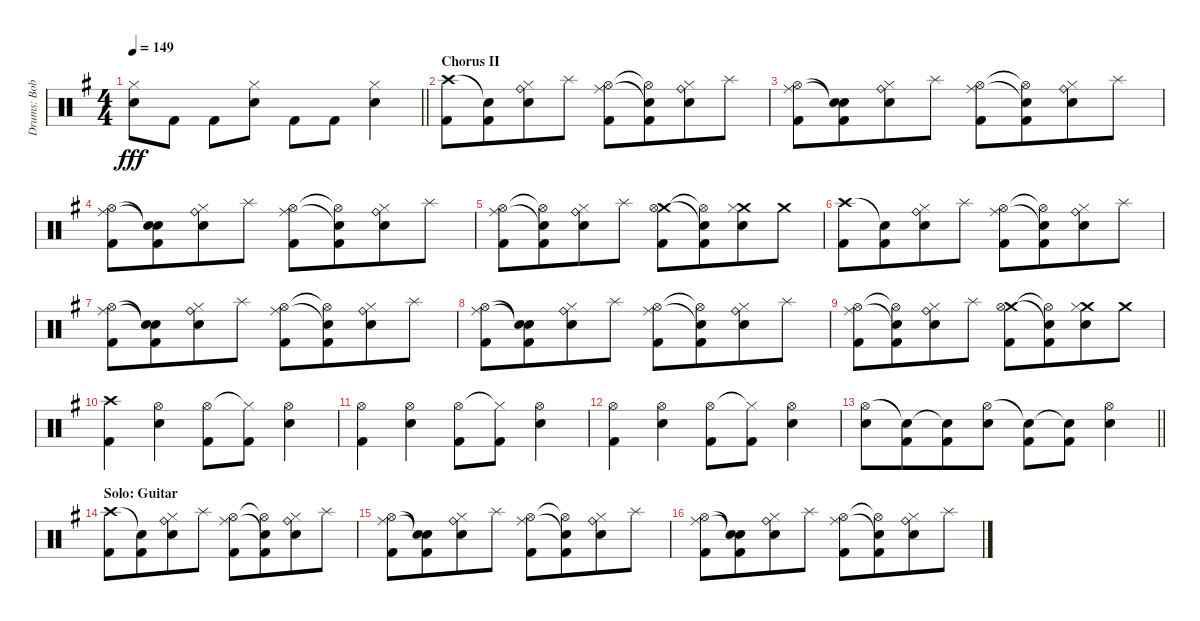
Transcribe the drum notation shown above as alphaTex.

\track ("Drums: Bobby" "Drums: Bob") {instrument percussion}
\staff {score}
\articulation defaults
\ts (4 4)
\tempo 149
\clef neutral
\barLineRight lightlight
\ks g
("Hi-Hat (closed)" "Snare (hit) 2").8{dy fff} "Kick (hit) 2".8 "Kick (hit) 2".8{beam merge} ("Hi-Hat (closed)" "Snare (hit) 2").8 "Kick (hit) 2".8 "Kick (hit) 2".8{beam merge} ("Hi-Hat (closed)" "Snare (hit) 2").4 |
\section ("" "Chorus II")
("Crash high (hit)" "Kick (hit) 2").8 ("Snare (hit)"{t} "Kick (hit) 2").8{beam merge} ("Ride (bell)" "Hi-Hat (closed)" "Snare (hit) 2").8 "Splash (hit)".8 ("Ride (middle)" "Hi-Hat (open)" "Kick (hit) 2").8 ("Snare (hit)"{t} "Hi-Hat (open)"{t} "Kick (hit) 2").8{beam merge} ("Ride (bell)" "Hi-Hat (closed)" "Snare (hit) 2").8 "Splash (hit)".8 |
("Ride (middle)" "Hi-Hat (open)" "Kick (hit) 2").8 ("Snare (hit)"{t} "Snare (hit)"{t} "Kick (hit) 2").8{beam merge} ("Ride (bell)" "Hi-Hat (closed)" "Snare (hit) 2").8 "Splash (hit)".8 ("Ride (middle)" "Hi-Hat (open)" "Kick (hit) 2").8 ("Snare (hit)"{t} "Hi-Hat (open)"{t} "Kick (hit) 2").8{beam merge} ("Ride (bell)" "Hi-Hat (closed)" "Snare (hit) 2").8 "Splash (hit)".8 |
("Ride (middle)" "Hi-Hat (open)" "Kick (hit) 2").8 ("Snare (hit)"{t} "Snare (hit)"{t} "Kick (hit) 2").8{beam merge} ("Ride (bell)" "Hi-Hat (closed)" "Snare (hit) 2").8 "Splash (hit)".8 ("Ride (middle)" "Hi-Hat (open)" "Kick (hit) 2").8 ("Snare (hit)"{t} "Hi-Hat (open)"{t} "Kick (hit) 2").8{beam merge} ("Ride (bell)" "Hi-Hat (closed)" "Snare (hit) 2").8 "Splash (hit)".8 |
("Ride (middle)" "Hi-Hat (open)" "Kick (hit) 2").8 ("Snare (hit)"{t} "Hi-Hat (open)"{t} "Kick (hit) 2").8{beam merge} ("Ride (bell)" "Hi-Hat (closed)" "Snare (hit) 2").8 "Splash (hit)".8 ("Crash medium (hit)" "Hi-Hat (open)" "Kick (hit) 2").8 ("Snare (hit)"{t} "Hi-Hat (open)"{t} "Kick (hit) 2").8{beam merge} ("Crash medium (hit)" "Hi-Hat (closed)" "Snare (hit) 2").8 "Crash medium (hit)".8 |
("Crash high (hit)" "Kick (hit) 2").8 ("Snare (hit)"{t} "Kick (hit) 2").8{beam merge} ("Ride (bell)" "Hi-Hat (closed)" "Snare (hit) 2").8 "Splash (hit)".8 ("Ride (middle)" "Hi-Hat (open)" "Kick (hit) 2").8 ("Snare (hit)"{t} "Hi-Hat (open)"{t} "Kick (hit) 2").8{beam merge} ("Ride (bell)" "Hi-Hat (closed)" "Snare (hit) 2").8 "Splash (hit)".8 |
("Ride (middle)" "Hi-Hat (open)" "Kick (hit) 2").8 ("Snare (hit)"{t} "Snare (hit)"{t} "Kick (hit) 2").8{beam merge} ("Ride (bell)" "Hi-Hat (closed)" "Snare (hit) 2").8 "Splash (hit)".8 ("Ride (middle)" "Hi-Hat (open)" "Kick (hit) 2").8 ("Snare (hit)"{t} "Hi-Hat (open)"{t} "Kick (hit) 2").8{beam merge} ("Ride (bell)" "Hi-Hat (closed)" "Snare (hit) 2").8 "Splash (hit)".8 |
("Ride (middle)" "Hi-Hat (open)" "Kick (hit) 2").8 ("Snare (hit)"{t} "Snare (hit)"{t} "Kick (hit) 2").8{beam merge} ("Ride (bell)" "Hi-Hat (closed)" "Snare (hit) 2").8 "Splash (hit)".8 ("Ride (middle)" "Hi-Hat (open)" "Kick (hit) 2").8 ("Snare (hit)"{t} "Hi-Hat (open)"{t} "Kick (hit) 2").8{beam merge} ("Ride (bell)" "Hi-Hat (closed)" "Snare (hit) 2").8 "Splash (hit)".8 |
("Ride (middle)" "Hi-Hat (open)" "Kick (hit) 2").8 ("Snare (hit)"{t} "Hi-Hat (open)"{t} "Kick (hit) 2").8{beam merge} ("Ride (bell)" "Hi-Hat (closed)" "Snare (hit) 2").8 "Splash (hit)".8 ("Crash medium (hit)" "Hi-Hat (open)" "Kick (hit) 2").8 ("Snare (hit)"{t} "Hi-Hat (open)"{t} "Kick (hit) 2").8{beam merge} ("Crash medium (hit)" "Hi-Hat (closed)" "Snare (hit) 2").8 "Crash medium (hit)".8 |
("Crash high (hit)" "Kick (hit) 2").4{beam merge} ("Hi-Hat (open)" "Snare (hit) 2").4 ("Hi-Hat (open)" "Kick (hit) 2").8 ("Hi-Hat (closed)"{t} "Kick (hit) 2").8{beam merge} ("Hi-Hat (open)" "Snare (hit) 2").4 |
("Hi-Hat (open)" "Kick (hit) 2").4{beam merge} ("Hi-Hat (open)" "Snare (hit) 2").4 ("Hi-Hat (open)" "Kick (hit) 2").8 ("Hi-Hat (closed)"{t} "Kick (hit) 2").8{beam merge} ("Hi-Hat (open)" "Snare (hit) 2").4 |
("Hi-Hat (open)" "Kick (hit) 2").4{beam merge} ("Hi-Hat (open)" "Snare (hit) 2").4 ("Hi-Hat (open)" "Kick (hit) 2").8 ("Hi-Hat (closed)"{t} "Kick (hit) 2").8{beam merge} ("Hi-Hat (open)" "Snare (hit) 2").4 |
\barLineRight lightlight
("Hi-Hat (open)" "Snare (hit) 2").8 ("Snare (hit)"{t} "Kick (hit) 2").8{beam merge} ("Snare (hit)"{t} "Kick (hit) 2").8{beam merge} ("Hi-Hat (open)" "Snare (hit) 2").8 ("Snare (hit)"{t} "Kick (hit) 2").8 ("Snare (hit)"{t} "Kick (hit) 2").8{beam merge} ("Hi-Hat (open)" "Snare (hit) 2").4 |
\section ("" "Solo: Guitar")
("Crash high (hit)" "Kick (hit) 2").8 ("Snare (hit)"{t} "Kick (hit) 2").8{beam merge} ("Ride (bell)" "Hi-Hat (closed)" "Snare (hit) 2").8 "Splash (hit)".8 ("Ride (middle)" "Hi-Hat (open)" "Kick (hit) 2").8 ("Snare (hit)"{t} "Hi-Hat (open)"{t} "Kick (hit) 2").8{beam merge} ("Ride (bell)" "Hi-Hat (closed)" "Snare (hit) 2").8 "Splash (hit)".8 |
("Ride (middle)" "Hi-Hat (open)" "Kick (hit) 2").8 ("Snare (hit)"{t} "Snare (hit)"{t} "Kick (hit) 2").8{beam merge} ("Ride (bell)" "Hi-Hat (closed)" "Snare (hit) 2").8 "Splash (hit)".8 ("Ride (middle)" "Hi-Hat (open)" "Kick (hit) 2").8 ("Snare (hit)"{t} "Hi-Hat (open)"{t} "Kick (hit) 2").8{beam merge} ("Ride (bell)" "Hi-Hat (closed)" "Snare (hit) 2").8 "Splash (hit)".8 |
("Ride (middle)" "Hi-Hat (open)" "Kick (hit) 2").8 ("Snare (hit)"{t} "Snare (hit)"{t} "Kick (hit) 2").8{beam merge} ("Ride (bell)" "Hi-Hat (closed)" "Snare (hit) 2").8 "Splash (hit)".8 ("Ride (middle)" "Hi-Hat (open)" "Kick (hit) 2").8 ("Snare (hit)"{t} "Hi-Hat (open)"{t} "Kick (hit) 2").8{beam merge} ("Ride (bell)" "Hi-Hat (closed)" "Snare (hit) 2").8 "Splash (hit)".8
